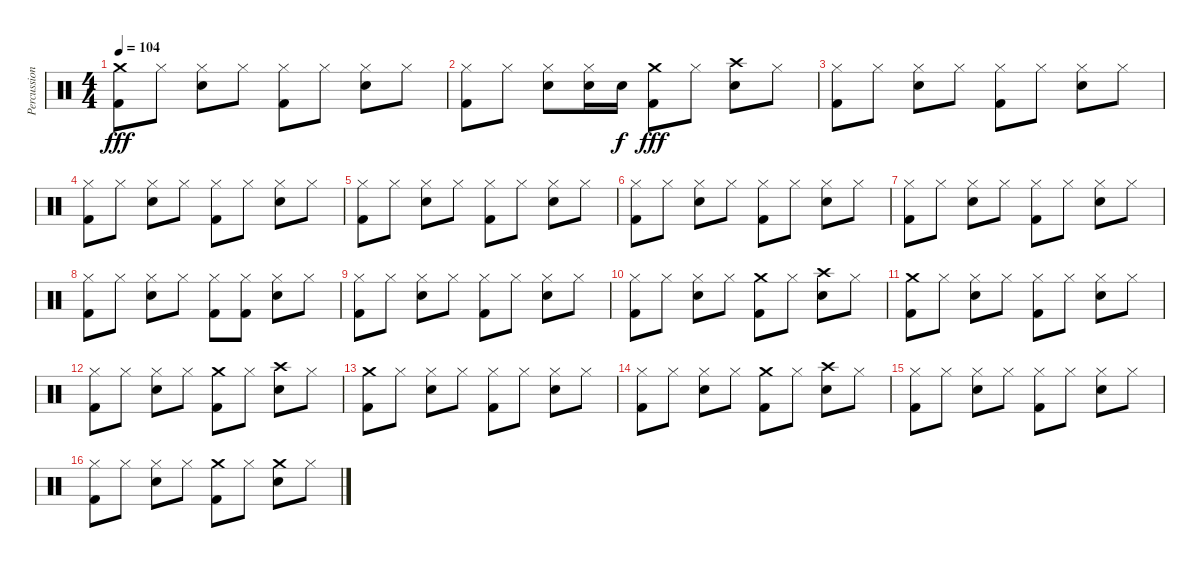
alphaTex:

\track ("Percussions" "Percussion") {instrument percussion}
\staff {score}
\articulation defaults
\ts (4 4)
\tempo 104
\clef neutral
\ks c
("Kick (hit) 2" "Crash medium (hit)").8{dy fff} "Hi-Hat (closed)".8 ("Snare (hit) 2" "Hi-Hat (closed)").8 "Hi-Hat (closed)".8 ("Hi-Hat (closed)" "Kick (hit) 2").8 "Hi-Hat (closed)".8 ("Hi-Hat (closed)" "Snare (hit) 2").8 "Hi-Hat (closed)".8 |
("Kick (hit) 2" "Hi-Hat (closed)").8 "Hi-Hat (closed)".8 ("Snare (hit) 2" "Hi-Hat (closed)").8 ("Snare (hit) 2" "Hi-Hat (closed)").16 "Snare (hit) 2".16{dy f} ("Crash medium (hit)" "Kick (hit) 2").8{dy fff} "Hi-Hat (closed)".8 ("Crash high (hit)" "Snare (hit) 2").8 "Hi-Hat (closed)".8 |
("Kick (hit) 2" "Hi-Hat (closed)").8 "Hi-Hat (closed)".8 ("Snare (hit) 2" "Hi-Hat (closed)").8 "Hi-Hat (closed)".8 ("Hi-Hat (closed)" "Kick (hit) 2").8 "Hi-Hat (closed)".8 ("Hi-Hat (closed)" "Snare (hit) 2").8 "Hi-Hat (closed)".8 |
("Kick (hit) 2" "Hi-Hat (closed)").8 "Hi-Hat (closed)".8 ("Snare (hit) 2" "Hi-Hat (closed)").8 "Hi-Hat (closed)".8 ("Hi-Hat (closed)" "Kick (hit) 2").8 "Hi-Hat (closed)".8 ("Hi-Hat (closed)" "Snare (hit) 2").8 "Hi-Hat (closed)".8 |
("Kick (hit) 2" "Hi-Hat (closed)").8 "Hi-Hat (closed)".8 ("Snare (hit) 2" "Hi-Hat (closed)").8 "Hi-Hat (closed)".8 ("Hi-Hat (closed)" "Kick (hit) 2").8 "Hi-Hat (closed)".8 ("Hi-Hat (closed)" "Snare (hit) 2").8 "Hi-Hat (closed)".8 |
("Kick (hit) 2" "Hi-Hat (closed)").8 "Hi-Hat (closed)".8 ("Snare (hit) 2" "Hi-Hat (closed)").8 "Hi-Hat (closed)".8 ("Hi-Hat (closed)" "Kick (hit) 2").8 "Hi-Hat (closed)".8 ("Hi-Hat (closed)" "Snare (hit) 2").8 "Hi-Hat (closed)".8 |
("Kick (hit) 2" "Hi-Hat (closed)").8 "Hi-Hat (closed)".8 ("Snare (hit) 2" "Hi-Hat (closed)").8 "Hi-Hat (closed)".8 ("Hi-Hat (closed)" "Kick (hit) 2").8 "Hi-Hat (closed)".8 ("Hi-Hat (closed)" "Snare (hit) 2").8 "Hi-Hat (closed)".8 |
("Kick (hit) 2" "Hi-Hat (closed)").8 "Hi-Hat (closed)".8 ("Snare (hit) 2" "Hi-Hat (closed)").8 "Hi-Hat (closed)".8 ("Hi-Hat (closed)" "Kick (hit) 2").8 ("Hi-Hat (closed)" "Kick (hit) 2").8 ("Hi-Hat (closed)" "Snare (hit) 2").8 "Hi-Hat (closed)".8 |
("Kick (hit) 2" "Hi-Hat (closed)").8 "Hi-Hat (closed)".8 ("Snare (hit) 2" "Hi-Hat (closed)").8 "Hi-Hat (closed)".8 ("Hi-Hat (closed)" "Kick (hit) 2").8 "Hi-Hat (closed)".8 ("Hi-Hat (closed)" "Snare (hit) 2").8 "Hi-Hat (closed)".8 |
("Kick (hit) 2" "Hi-Hat (closed)").8 "Hi-Hat (closed)".8 ("Snare (hit) 2" "Hi-Hat (closed)").8 "Hi-Hat (closed)".8 ("Crash medium (hit)" "Kick (hit) 2").8 "Hi-Hat (closed)".8 ("Crash high (hit)" "Snare (hit) 2").8 "Hi-Hat (closed)".8 |
("Kick (hit) 2" "Crash medium (hit)").8 "Hi-Hat (closed)".8 ("Snare (hit) 2" "Hi-Hat (closed)").8 "Hi-Hat (closed)".8 ("Hi-Hat (closed)" "Kick (hit) 2").8 "Hi-Hat (closed)".8 ("Hi-Hat (closed)" "Snare (hit) 2").8 "Hi-Hat (closed)".8 |
("Kick (hit) 2" "Hi-Hat (closed)").8 "Hi-Hat (closed)".8 ("Snare (hit) 2" "Hi-Hat (closed)").8 "Hi-Hat (closed)".8 ("Crash medium (hit)" "Kick (hit) 2").8 "Hi-Hat (closed)".8 ("Crash high (hit)" "Snare (hit) 2").8 "Hi-Hat (closed)".8 |
("Kick (hit) 2" "Crash medium (hit)").8 "Hi-Hat (closed)".8 ("Snare (hit) 2" "Hi-Hat (closed)").8 "Hi-Hat (closed)".8 ("Hi-Hat (closed)" "Kick (hit) 2").8 "Hi-Hat (closed)".8 ("Hi-Hat (closed)" "Snare (hit) 2").8 "Hi-Hat (closed)".8 |
("Kick (hit) 2" "Hi-Hat (closed)").8 "Hi-Hat (closed)".8 ("Snare (hit) 2" "Hi-Hat (closed)").8 "Hi-Hat (closed)".8 ("Crash medium (hit)" "Kick (hit) 2").8 "Hi-Hat (closed)".8 ("Crash high (hit)" "Snare (hit) 2").8 "Hi-Hat (closed)".8 |
("Kick (hit) 2" "Hi-Hat (closed)").8 "Hi-Hat (closed)".8 ("Snare (hit) 2" "Hi-Hat (closed)").8 "Hi-Hat (closed)".8 ("Hi-Hat (closed)" "Kick (hit) 2").8 "Hi-Hat (closed)".8 ("Hi-Hat (closed)" "Snare (hit) 2").8 "Hi-Hat (closed)".8 |
("Kick (hit) 2" "Hi-Hat (closed)").8 "Hi-Hat (closed)".8 ("Snare (hit) 2" "Hi-Hat (closed)").8 "Hi-Hat (closed)".8 ("Crash medium (hit)" "Kick (hit) 2").8 "Hi-Hat (closed)".8 ("Snare (hit) 2" "Crash medium (hit)").8 "Hi-Hat (closed)".8
